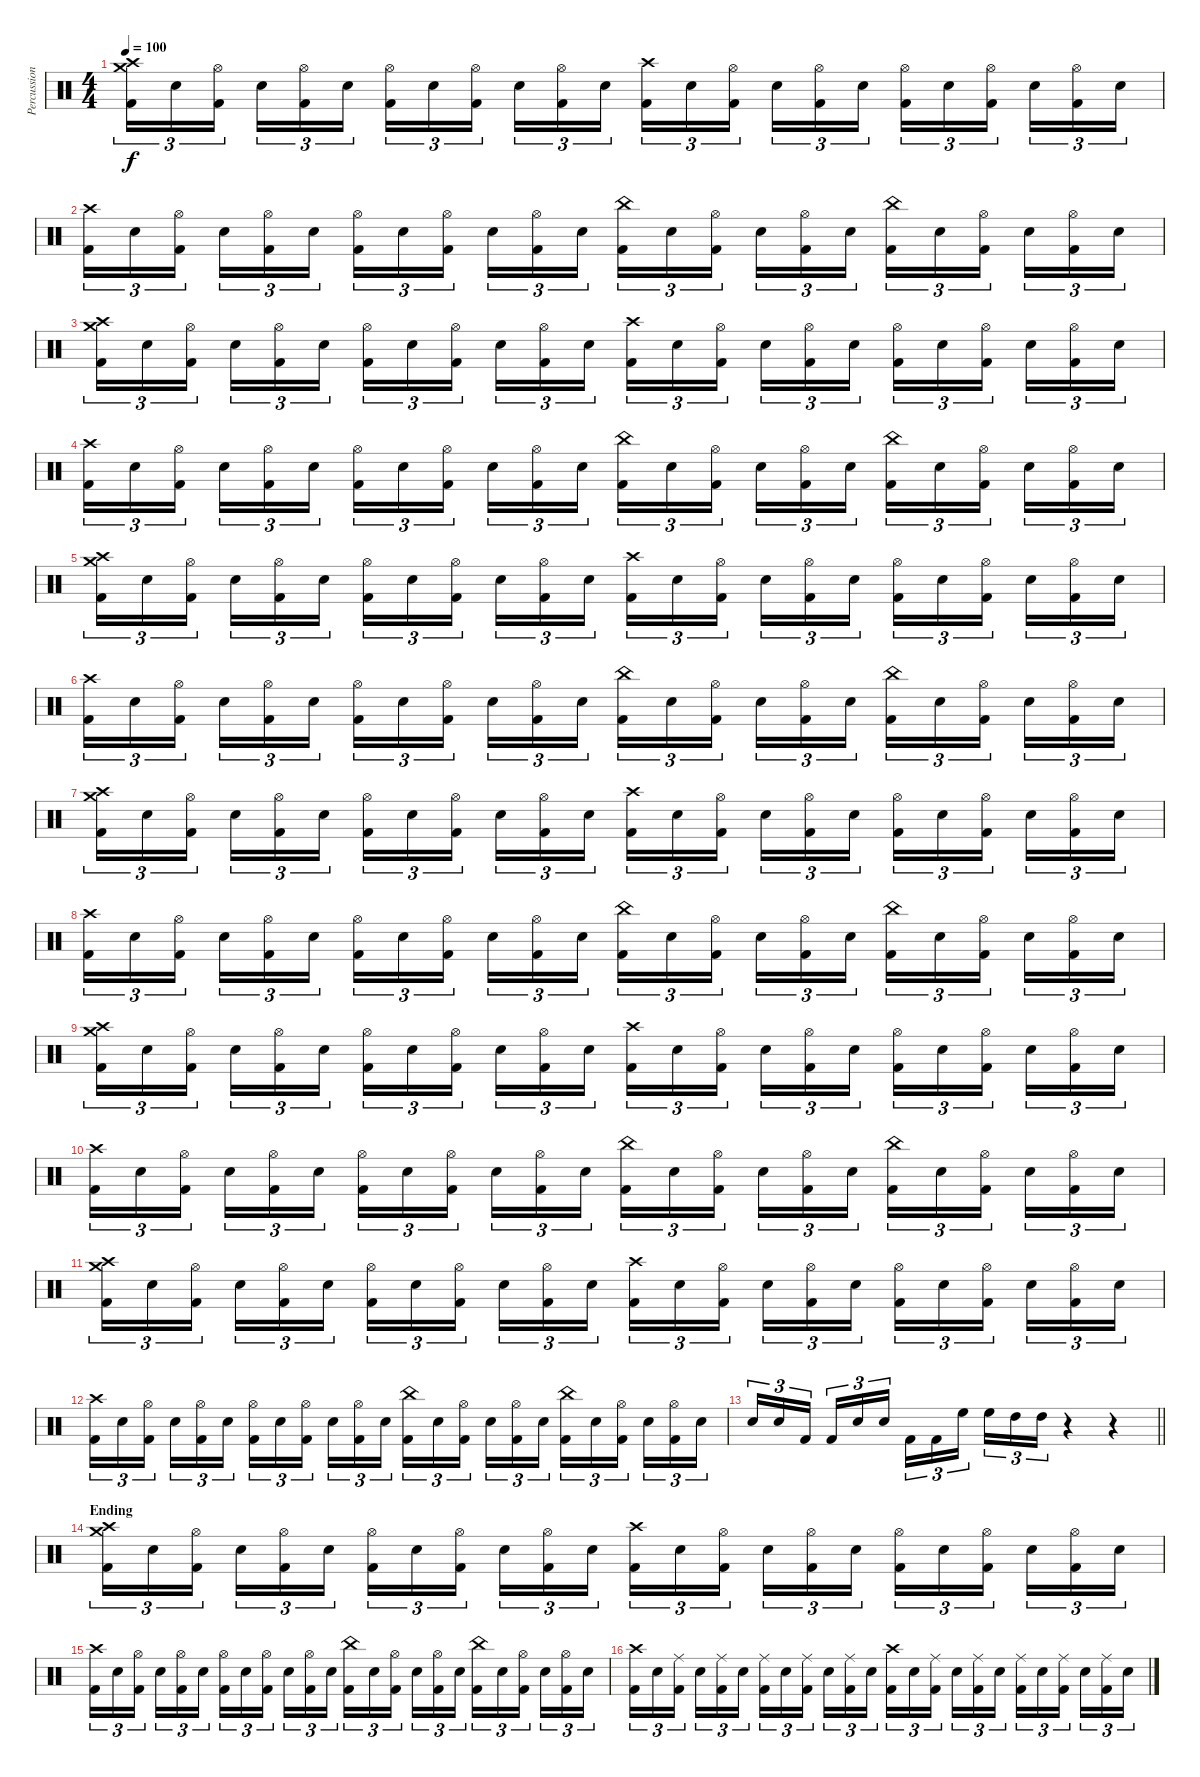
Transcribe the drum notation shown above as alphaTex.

\track ("Percussion" "Percussion") {instrument percussion}
\staff {score}
\articulation defaults
\ts (4 4)
\tempo 100
\clef neutral
\ks c
("Crash medium (hit)" "Crash high (hit)" "Kick (hit) 2").16{tu (3 2) dy f} "Electric Snare (hit)".16{tu (3 2)} ("Hi-Hat (open)" "Kick (hit) 2").16{tu (3 2) beam splitsecondary} "Electric Snare (hit)".16{tu (3 2)} ("Hi-Hat (open)" "Kick (hit) 2").16{tu (3 2)} "Electric Snare (hit)".16{tu (3 2)} ("Hi-Hat (open)" "Kick (hit) 2").16{tu (3 2)} "Electric Snare (hit)".16{tu (3 2)} ("Hi-Hat (open)" "Kick (hit) 2").16{tu (3 2) beam splitsecondary} "Electric Snare (hit)".16{tu (3 2)} ("Hi-Hat (open)" "Kick (hit) 2").16{tu (3 2)} "Electric Snare (hit)".16{tu (3 2)} ("Crash high (hit)" "Kick (hit) 2").16{tu (3 2)} "Electric Snare (hit)".16{tu (3 2)} ("Hi-Hat (open)" "Kick (hit) 2").16{tu (3 2) beam splitsecondary} "Electric Snare (hit)".16{tu (3 2)} ("Hi-Hat (open)" "Kick (hit) 2").16{tu (3 2)} "Electric Snare (hit)".16{tu (3 2)} ("Hi-Hat (open)" "Kick (hit) 2").16{tu (3 2)} "Electric Snare (hit)".16{tu (3 2)} ("Hi-Hat (open)" "Kick (hit) 2").16{tu (3 2) beam splitsecondary} "Electric Snare (hit)".16{tu (3 2)} ("Hi-Hat (open)" "Kick (hit) 2").16{tu (3 2)} "Electric Snare (hit)".16{tu (3 2)} |
("Crash high (hit)" "Kick (hit) 2").16{tu (3 2)} "Electric Snare (hit)".16{tu (3 2)} ("Hi-Hat (open)" "Kick (hit) 2").16{tu (3 2) beam splitsecondary} "Electric Snare (hit)".16{tu (3 2)} ("Hi-Hat (open)" "Kick (hit) 2").16{tu (3 2)} "Electric Snare (hit)".16{tu (3 2)} ("Hi-Hat (open)" "Kick (hit) 2").16{tu (3 2)} "Electric Snare (hit)".16{tu (3 2)} ("Hi-Hat (open)" "Kick (hit) 2").16{tu (3 2) beam splitsecondary} "Electric Snare (hit)".16{tu (3 2)} ("Hi-Hat (open)" "Kick (hit) 2").16{tu (3 2)} "Electric Snare (hit)".16{tu (3 2)} ("China (hit)" "Kick (hit) 2").16{tu (3 2)} "Electric Snare (hit)".16{tu (3 2)} ("Hi-Hat (open)" "Kick (hit) 2").16{tu (3 2) beam splitsecondary} "Electric Snare (hit)".16{tu (3 2)} ("Hi-Hat (open)" "Kick (hit) 2").16{tu (3 2)} "Electric Snare (hit)".16{tu (3 2)} ("China (hit)" "Kick (hit) 2").16{tu (3 2)} "Electric Snare (hit)".16{tu (3 2)} ("Hi-Hat (open)" "Kick (hit) 2").16{tu (3 2) beam splitsecondary} "Electric Snare (hit)".16{tu (3 2)} ("Hi-Hat (open)" "Kick (hit) 2").16{tu (3 2)} "Electric Snare (hit)".16{tu (3 2)} |
("Crash medium (hit)" "Crash high (hit)" "Kick (hit) 2").16{tu (3 2)} "Electric Snare (hit)".16{tu (3 2)} ("Hi-Hat (open)" "Kick (hit) 2").16{tu (3 2) beam splitsecondary} "Electric Snare (hit)".16{tu (3 2)} ("Hi-Hat (open)" "Kick (hit) 2").16{tu (3 2)} "Electric Snare (hit)".16{tu (3 2)} ("Hi-Hat (open)" "Kick (hit) 2").16{tu (3 2)} "Electric Snare (hit)".16{tu (3 2)} ("Hi-Hat (open)" "Kick (hit) 2").16{tu (3 2) beam splitsecondary} "Electric Snare (hit)".16{tu (3 2)} ("Hi-Hat (open)" "Kick (hit) 2").16{tu (3 2)} "Electric Snare (hit)".16{tu (3 2)} ("Crash high (hit)" "Kick (hit) 2").16{tu (3 2)} "Electric Snare (hit)".16{tu (3 2)} ("Hi-Hat (open)" "Kick (hit) 2").16{tu (3 2) beam splitsecondary} "Electric Snare (hit)".16{tu (3 2)} ("Hi-Hat (open)" "Kick (hit) 2").16{tu (3 2)} "Electric Snare (hit)".16{tu (3 2)} ("Hi-Hat (open)" "Kick (hit) 2").16{tu (3 2)} "Electric Snare (hit)".16{tu (3 2)} ("Hi-Hat (open)" "Kick (hit) 2").16{tu (3 2) beam splitsecondary} "Electric Snare (hit)".16{tu (3 2)} ("Hi-Hat (open)" "Kick (hit) 2").16{tu (3 2)} "Electric Snare (hit)".16{tu (3 2)} |
("Crash high (hit)" "Kick (hit) 2").16{tu (3 2)} "Electric Snare (hit)".16{tu (3 2)} ("Hi-Hat (open)" "Kick (hit) 2").16{tu (3 2) beam splitsecondary} "Electric Snare (hit)".16{tu (3 2)} ("Hi-Hat (open)" "Kick (hit) 2").16{tu (3 2)} "Electric Snare (hit)".16{tu (3 2)} ("Hi-Hat (open)" "Kick (hit) 2").16{tu (3 2)} "Electric Snare (hit)".16{tu (3 2)} ("Hi-Hat (open)" "Kick (hit) 2").16{tu (3 2) beam splitsecondary} "Electric Snare (hit)".16{tu (3 2)} ("Hi-Hat (open)" "Kick (hit) 2").16{tu (3 2)} "Electric Snare (hit)".16{tu (3 2)} ("China (hit)" "Kick (hit) 2").16{tu (3 2)} "Electric Snare (hit)".16{tu (3 2)} ("Hi-Hat (open)" "Kick (hit) 2").16{tu (3 2) beam splitsecondary} "Electric Snare (hit)".16{tu (3 2)} ("Hi-Hat (open)" "Kick (hit) 2").16{tu (3 2)} "Electric Snare (hit)".16{tu (3 2)} ("China (hit)" "Kick (hit) 2").16{tu (3 2)} "Electric Snare (hit)".16{tu (3 2)} ("Hi-Hat (open)" "Kick (hit) 2").16{tu (3 2) beam splitsecondary} "Electric Snare (hit)".16{tu (3 2)} ("Hi-Hat (open)" "Kick (hit) 2").16{tu (3 2)} "Electric Snare (hit)".16{tu (3 2)} |
("Crash medium (hit)" "Crash high (hit)" "Kick (hit) 2").16{tu (3 2)} "Electric Snare (hit)".16{tu (3 2)} ("Hi-Hat (open)" "Kick (hit) 2").16{tu (3 2) beam splitsecondary} "Electric Snare (hit)".16{tu (3 2)} ("Hi-Hat (open)" "Kick (hit) 2").16{tu (3 2)} "Electric Snare (hit)".16{tu (3 2)} ("Hi-Hat (open)" "Kick (hit) 2").16{tu (3 2)} "Electric Snare (hit)".16{tu (3 2)} ("Hi-Hat (open)" "Kick (hit) 2").16{tu (3 2) beam splitsecondary} "Electric Snare (hit)".16{tu (3 2)} ("Hi-Hat (open)" "Kick (hit) 2").16{tu (3 2)} "Electric Snare (hit)".16{tu (3 2)} ("Crash high (hit)" "Kick (hit) 2").16{tu (3 2)} "Electric Snare (hit)".16{tu (3 2)} ("Hi-Hat (open)" "Kick (hit) 2").16{tu (3 2) beam splitsecondary} "Electric Snare (hit)".16{tu (3 2)} ("Hi-Hat (open)" "Kick (hit) 2").16{tu (3 2)} "Electric Snare (hit)".16{tu (3 2)} ("Hi-Hat (open)" "Kick (hit) 2").16{tu (3 2)} "Electric Snare (hit)".16{tu (3 2)} ("Hi-Hat (open)" "Kick (hit) 2").16{tu (3 2) beam splitsecondary} "Electric Snare (hit)".16{tu (3 2)} ("Hi-Hat (open)" "Kick (hit) 2").16{tu (3 2)} "Electric Snare (hit)".16{tu (3 2)} |
("Crash high (hit)" "Kick (hit) 2").16{tu (3 2)} "Electric Snare (hit)".16{tu (3 2)} ("Hi-Hat (open)" "Kick (hit) 2").16{tu (3 2) beam splitsecondary} "Electric Snare (hit)".16{tu (3 2)} ("Hi-Hat (open)" "Kick (hit) 2").16{tu (3 2)} "Electric Snare (hit)".16{tu (3 2)} ("Hi-Hat (open)" "Kick (hit) 2").16{tu (3 2)} "Electric Snare (hit)".16{tu (3 2)} ("Hi-Hat (open)" "Kick (hit) 2").16{tu (3 2) beam splitsecondary} "Electric Snare (hit)".16{tu (3 2)} ("Hi-Hat (open)" "Kick (hit) 2").16{tu (3 2)} "Electric Snare (hit)".16{tu (3 2)} ("China (hit)" "Kick (hit) 2").16{tu (3 2)} "Electric Snare (hit)".16{tu (3 2)} ("Hi-Hat (open)" "Kick (hit) 2").16{tu (3 2) beam splitsecondary} "Electric Snare (hit)".16{tu (3 2)} ("Hi-Hat (open)" "Kick (hit) 2").16{tu (3 2)} "Electric Snare (hit)".16{tu (3 2)} ("China (hit)" "Kick (hit) 2").16{tu (3 2)} "Electric Snare (hit)".16{tu (3 2)} ("Hi-Hat (open)" "Kick (hit) 2").16{tu (3 2) beam splitsecondary} "Electric Snare (hit)".16{tu (3 2)} ("Hi-Hat (open)" "Kick (hit) 2").16{tu (3 2)} "Electric Snare (hit)".16{tu (3 2)} |
("Crash medium (hit)" "Crash high (hit)" "Kick (hit) 2").16{tu (3 2)} "Electric Snare (hit)".16{tu (3 2)} ("Hi-Hat (open)" "Kick (hit) 2").16{tu (3 2) beam splitsecondary} "Electric Snare (hit)".16{tu (3 2)} ("Hi-Hat (open)" "Kick (hit) 2").16{tu (3 2)} "Electric Snare (hit)".16{tu (3 2)} ("Hi-Hat (open)" "Kick (hit) 2").16{tu (3 2)} "Electric Snare (hit)".16{tu (3 2)} ("Hi-Hat (open)" "Kick (hit) 2").16{tu (3 2) beam splitsecondary} "Electric Snare (hit)".16{tu (3 2)} ("Hi-Hat (open)" "Kick (hit) 2").16{tu (3 2)} "Electric Snare (hit)".16{tu (3 2)} ("Crash high (hit)" "Kick (hit) 2").16{tu (3 2)} "Electric Snare (hit)".16{tu (3 2)} ("Hi-Hat (open)" "Kick (hit) 2").16{tu (3 2) beam splitsecondary} "Electric Snare (hit)".16{tu (3 2)} ("Hi-Hat (open)" "Kick (hit) 2").16{tu (3 2)} "Electric Snare (hit)".16{tu (3 2)} ("Hi-Hat (open)" "Kick (hit) 2").16{tu (3 2)} "Electric Snare (hit)".16{tu (3 2)} ("Hi-Hat (open)" "Kick (hit) 2").16{tu (3 2) beam splitsecondary} "Electric Snare (hit)".16{tu (3 2)} ("Hi-Hat (open)" "Kick (hit) 2").16{tu (3 2)} "Electric Snare (hit)".16{tu (3 2)} |
("Crash high (hit)" "Kick (hit) 2").16{tu (3 2)} "Electric Snare (hit)".16{tu (3 2)} ("Hi-Hat (open)" "Kick (hit) 2").16{tu (3 2) beam splitsecondary} "Electric Snare (hit)".16{tu (3 2)} ("Hi-Hat (open)" "Kick (hit) 2").16{tu (3 2)} "Electric Snare (hit)".16{tu (3 2)} ("Hi-Hat (open)" "Kick (hit) 2").16{tu (3 2)} "Electric Snare (hit)".16{tu (3 2)} ("Hi-Hat (open)" "Kick (hit) 2").16{tu (3 2) beam splitsecondary} "Electric Snare (hit)".16{tu (3 2)} ("Hi-Hat (open)" "Kick (hit) 2").16{tu (3 2)} "Electric Snare (hit)".16{tu (3 2)} ("China (hit)" "Kick (hit) 2").16{tu (3 2)} "Electric Snare (hit)".16{tu (3 2)} ("Hi-Hat (open)" "Kick (hit) 2").16{tu (3 2) beam splitsecondary} "Electric Snare (hit)".16{tu (3 2)} ("Hi-Hat (open)" "Kick (hit) 2").16{tu (3 2)} "Electric Snare (hit)".16{tu (3 2)} ("China (hit)" "Kick (hit) 2").16{tu (3 2)} "Electric Snare (hit)".16{tu (3 2)} ("Hi-Hat (open)" "Kick (hit) 2").16{tu (3 2) beam splitsecondary} "Electric Snare (hit)".16{tu (3 2)} ("Hi-Hat (open)" "Kick (hit) 2").16{tu (3 2)} "Electric Snare (hit)".16{tu (3 2)} |
("Crash medium (hit)" "Crash high (hit)" "Kick (hit) 2").16{tu (3 2)} "Electric Snare (hit)".16{tu (3 2)} ("Hi-Hat (open)" "Kick (hit) 2").16{tu (3 2) beam splitsecondary} "Electric Snare (hit)".16{tu (3 2)} ("Hi-Hat (open)" "Kick (hit) 2").16{tu (3 2)} "Electric Snare (hit)".16{tu (3 2)} ("Hi-Hat (open)" "Kick (hit) 2").16{tu (3 2)} "Electric Snare (hit)".16{tu (3 2)} ("Hi-Hat (open)" "Kick (hit) 2").16{tu (3 2) beam splitsecondary} "Electric Snare (hit)".16{tu (3 2)} ("Hi-Hat (open)" "Kick (hit) 2").16{tu (3 2)} "Electric Snare (hit)".16{tu (3 2)} ("Crash high (hit)" "Kick (hit) 2").16{tu (3 2)} "Electric Snare (hit)".16{tu (3 2)} ("Hi-Hat (open)" "Kick (hit) 2").16{tu (3 2) beam splitsecondary} "Electric Snare (hit)".16{tu (3 2)} ("Hi-Hat (open)" "Kick (hit) 2").16{tu (3 2)} "Electric Snare (hit)".16{tu (3 2)} ("Hi-Hat (open)" "Kick (hit) 2").16{tu (3 2)} "Electric Snare (hit)".16{tu (3 2)} ("Hi-Hat (open)" "Kick (hit) 2").16{tu (3 2) beam splitsecondary} "Electric Snare (hit)".16{tu (3 2)} ("Hi-Hat (open)" "Kick (hit) 2").16{tu (3 2)} "Electric Snare (hit)".16{tu (3 2)} |
("Crash high (hit)" "Kick (hit) 2").16{tu (3 2)} "Electric Snare (hit)".16{tu (3 2)} ("Hi-Hat (open)" "Kick (hit) 2").16{tu (3 2) beam splitsecondary} "Electric Snare (hit)".16{tu (3 2)} ("Hi-Hat (open)" "Kick (hit) 2").16{tu (3 2)} "Electric Snare (hit)".16{tu (3 2)} ("Hi-Hat (open)" "Kick (hit) 2").16{tu (3 2)} "Electric Snare (hit)".16{tu (3 2)} ("Hi-Hat (open)" "Kick (hit) 2").16{tu (3 2) beam splitsecondary} "Electric Snare (hit)".16{tu (3 2)} ("Hi-Hat (open)" "Kick (hit) 2").16{tu (3 2)} "Electric Snare (hit)".16{tu (3 2)} ("China (hit)" "Kick (hit) 2").16{tu (3 2)} "Electric Snare (hit)".16{tu (3 2)} ("Hi-Hat (open)" "Kick (hit) 2").16{tu (3 2) beam splitsecondary} "Electric Snare (hit)".16{tu (3 2)} ("Hi-Hat (open)" "Kick (hit) 2").16{tu (3 2)} "Electric Snare (hit)".16{tu (3 2)} ("China (hit)" "Kick (hit) 2").16{tu (3 2)} "Electric Snare (hit)".16{tu (3 2)} ("Hi-Hat (open)" "Kick (hit) 2").16{tu (3 2) beam splitsecondary} "Electric Snare (hit)".16{tu (3 2)} ("Hi-Hat (open)" "Kick (hit) 2").16{tu (3 2)} "Electric Snare (hit)".16{tu (3 2)} |
("Crash medium (hit)" "Crash high (hit)" "Kick (hit) 2").16{tu (3 2)} "Electric Snare (hit)".16{tu (3 2)} ("Hi-Hat (open)" "Kick (hit) 2").16{tu (3 2) beam splitsecondary} "Electric Snare (hit)".16{tu (3 2)} ("Hi-Hat (open)" "Kick (hit) 2").16{tu (3 2)} "Electric Snare (hit)".16{tu (3 2)} ("Hi-Hat (open)" "Kick (hit) 2").16{tu (3 2)} "Electric Snare (hit)".16{tu (3 2)} ("Hi-Hat (open)" "Kick (hit) 2").16{tu (3 2) beam splitsecondary} "Electric Snare (hit)".16{tu (3 2)} ("Hi-Hat (open)" "Kick (hit) 2").16{tu (3 2)} "Electric Snare (hit)".16{tu (3 2)} ("Crash high (hit)" "Kick (hit) 2").16{tu (3 2)} "Electric Snare (hit)".16{tu (3 2)} ("Hi-Hat (open)" "Kick (hit) 2").16{tu (3 2) beam splitsecondary} "Electric Snare (hit)".16{tu (3 2)} ("Hi-Hat (open)" "Kick (hit) 2").16{tu (3 2)} "Electric Snare (hit)".16{tu (3 2)} ("Hi-Hat (open)" "Kick (hit) 2").16{tu (3 2)} "Electric Snare (hit)".16{tu (3 2)} ("Hi-Hat (open)" "Kick (hit) 2").16{tu (3 2) beam splitsecondary} "Electric Snare (hit)".16{tu (3 2)} ("Hi-Hat (open)" "Kick (hit) 2").16{tu (3 2)} "Electric Snare (hit)".16{tu (3 2)} |
("Crash high (hit)" "Kick (hit) 2").16{tu (3 2)} "Electric Snare (hit)".16{tu (3 2)} ("Hi-Hat (open)" "Kick (hit) 2").16{tu (3 2) beam splitsecondary} "Electric Snare (hit)".16{tu (3 2)} ("Hi-Hat (open)" "Kick (hit) 2").16{tu (3 2)} "Electric Snare (hit)".16{tu (3 2)} ("Hi-Hat (open)" "Kick (hit) 2").16{tu (3 2)} "Electric Snare (hit)".16{tu (3 2)} ("Hi-Hat (open)" "Kick (hit) 2").16{tu (3 2) beam splitsecondary} "Electric Snare (hit)".16{tu (3 2)} ("Hi-Hat (open)" "Kick (hit) 2").16{tu (3 2)} "Electric Snare (hit)".16{tu (3 2)} ("China (hit)" "Kick (hit) 2").16{tu (3 2)} "Electric Snare (hit)".16{tu (3 2)} ("Hi-Hat (open)" "Kick (hit) 2").16{tu (3 2) beam splitsecondary} "Electric Snare (hit)".16{tu (3 2)} ("Hi-Hat (open)" "Kick (hit) 2").16{tu (3 2)} "Electric Snare (hit)".16{tu (3 2)} ("China (hit)" "Kick (hit) 2").16{tu (3 2)} "Electric Snare (hit)".16{tu (3 2)} ("Hi-Hat (open)" "Kick (hit) 2").16{tu (3 2) beam splitsecondary} "Electric Snare (hit)".16{tu (3 2)} ("Hi-Hat (open)" "Kick (hit) 2").16{tu (3 2)} "Electric Snare (hit)".16{tu (3 2)} |
\barLineRight lightlight "Electric Snare (hit)".16{tu (3 2)} "Electric Snare (hit)".16{tu (3 2)} "Kick (hit) 2".16{tu (3 2) beam splitsecondary} "Kick (hit) 2".16{tu (3 2)} "Electric Snare (hit)".16{tu (3 2)} "Electric Snare (hit)".16{tu (3 2)} "Kick (hit) 2".16{tu (3 2)} "Kick (hit) 2".16{tu (3 2)} "High Floor Tom (hit)".16{tu (3 2) beam splitsecondary} "High Floor Tom (hit)".16{tu (3 2)} "High Tom (hit)".16{tu (3 2)} "High Tom (hit)".16{tu (3 2)}
r.4 r.4 |
\section ("" "Ending")
("Crash high (hit)" "Crash medium (hit)" "Kick (hit) 2").16{tu (3 2)} "Electric Snare (hit)".16{tu (3 2)} ("Hi-Hat (open)" "Kick (hit) 2").16{tu (3 2) beam splitsecondary} "Electric Snare (hit)".16{tu (3 2)} ("Hi-Hat (open)" "Kick (hit) 2").16{tu (3 2)} "Electric Snare (hit)".16{tu (3 2)} ("Hi-Hat (open)" "Kick (hit) 2").16{tu (3 2)} "Electric Snare (hit)".16{tu (3 2)} ("Hi-Hat (open)" "Kick (hit) 2").16{tu (3 2) beam splitsecondary} "Electric Snare (hit)".16{tu (3 2)} ("Hi-Hat (open)" "Kick (hit) 2").16{tu (3 2)} "Electric Snare (hit)".16{tu (3 2)} ("Crash high (hit)" "Kick (hit) 2").16{tu (3 2)} "Electric Snare (hit)".16{tu (3 2)} ("Hi-Hat (open)" "Kick (hit) 2").16{tu (3 2) beam splitsecondary} "Electric Snare (hit)".16{tu (3 2)} ("Hi-Hat (open)" "Kick (hit) 2").16{tu (3 2)} "Electric Snare (hit)".16{tu (3 2)} ("Hi-Hat (open)" "Kick (hit) 2").16{tu (3 2)} "Electric Snare (hit)".16{tu (3 2)} ("Hi-Hat (open)" "Kick (hit) 2").16{tu (3 2) beam splitsecondary} "Electric Snare (hit)".16{tu (3 2)} ("Hi-Hat (open)" "Kick (hit) 2").16{tu (3 2)} "Electric Snare (hit)".16{tu (3 2)} |
("Crash high (hit)" "Kick (hit) 2").16{tu (3 2)} "Electric Snare (hit)".16{tu (3 2)} ("Hi-Hat (open)" "Kick (hit) 2").16{tu (3 2) beam splitsecondary} "Electric Snare (hit)".16{tu (3 2)} ("Hi-Hat (open)" "Kick (hit) 2").16{tu (3 2)} "Electric Snare (hit)".16{tu (3 2)} ("Hi-Hat (open)" "Kick (hit) 2").16{tu (3 2)} "Electric Snare (hit)".16{tu (3 2)} ("Hi-Hat (open)" "Kick (hit) 2").16{tu (3 2) beam splitsecondary} "Electric Snare (hit)".16{tu (3 2)} ("Hi-Hat (open)" "Kick (hit) 2").16{tu (3 2)} "Electric Snare (hit)".16{tu (3 2)} ("China (hit)" "Kick (hit) 2").16{tu (3 2)} "Electric Snare (hit)".16{tu (3 2)} ("Hi-Hat (open)" "Kick (hit) 2").16{tu (3 2) beam splitsecondary} "Electric Snare (hit)".16{tu (3 2)} ("Hi-Hat (open)" "Kick (hit) 2").16{tu (3 2)} "Electric Snare (hit)".16{tu (3 2)} ("China (hit)" "Kick (hit) 2").16{tu (3 2)} "Electric Snare (hit)".16{tu (3 2)} ("Hi-Hat (open)" "Kick (hit) 2").16{tu (3 2) beam splitsecondary} "Electric Snare (hit)".16{tu (3 2)} ("Hi-Hat (open)" "Kick (hit) 2").16{tu (3 2)} "Electric Snare (hit)".16{tu (3 2)} |
("Crash high (hit)" "Kick (hit) 2").16{tu (3 2)} "Electric Snare (hit)".16{tu (3 2)} ("Ride (middle)" "Kick (hit) 2").16{tu (3 2) beam splitsecondary} "Electric Snare (hit)".16{tu (3 2)} ("Ride (middle)" "Kick (hit) 2").16{tu (3 2)} "Electric Snare (hit)".16{tu (3 2)} ("Ride (middle)" "Kick (hit) 2").16{tu (3 2)} "Electric Snare (hit)".16{tu (3 2)} ("Ride (middle)" "Kick (hit) 2").16{tu (3 2) beam splitsecondary} "Electric Snare (hit)".16{tu (3 2)} ("Ride (middle)" "Kick (hit) 2").16{tu (3 2)} "Electric Snare (hit)".16{tu (3 2)} ("Crash high (hit)" "Kick (hit) 2").16{tu (3 2)} "Electric Snare (hit)".16{tu (3 2)} ("Ride (middle)" "Kick (hit) 2").16{tu (3 2) beam splitsecondary} "Electric Snare (hit)".16{tu (3 2)} ("Ride (middle)" "Kick (hit) 2").16{tu (3 2)} "Electric Snare (hit)".16{tu (3 2)} ("Ride (middle)" "Kick (hit) 2").16{tu (3 2)} "Electric Snare (hit)".16{tu (3 2)} ("Ride (middle)" "Kick (hit) 2").16{tu (3 2) beam splitsecondary} "Electric Snare (hit)".16{tu (3 2)} ("Ride (middle)" "Kick (hit) 2").16{tu (3 2)} "Electric Snare (hit)".16{tu (3 2)}
